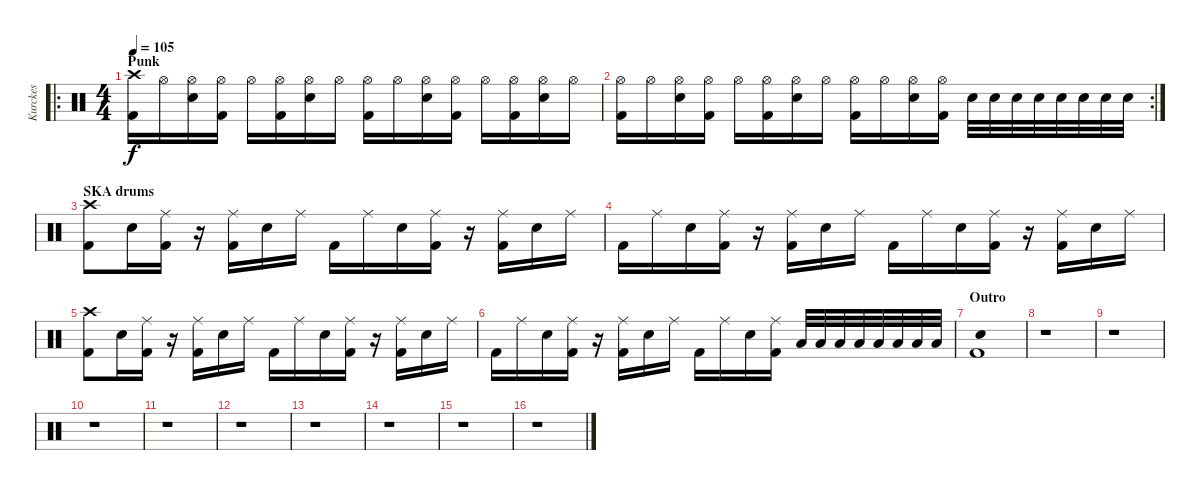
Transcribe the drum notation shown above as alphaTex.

\track ("Kurckes" "Kurckes") {instrument percussion}
\staff {score}
\articulation defaults
\ro
\ts (4 4)
\section ("" "Punk")
\tempo 105
\clef neutral
\ks c
("Crash high (hit)" "Kick (hit) 2").16{dy f} "Hi-Hat (open)".16 ("Hi-Hat (open)" "Snare (hit) 2").16 ("Hi-Hat (open)" "Kick (hit) 2").16 "Hi-Hat (open)".16 ("Hi-Hat (open)" "Kick (hit) 2").16 ("Hi-Hat (open)" "Snare (hit) 2").16 "Hi-Hat (open)".16 ("Hi-Hat (open)" "Kick (hit) 2").16 "Hi-Hat (open)".16 ("Hi-Hat (open)" "Snare (hit) 2").16 ("Hi-Hat (open)" "Kick (hit) 2").16 "Hi-Hat (open)".16 ("Hi-Hat (open)" "Kick (hit) 2").16 ("Hi-Hat (open)" "Snare (hit) 2").16 "Hi-Hat (open)".16 |
\rc 2
("Hi-Hat (open)" "Kick (hit) 2").16 "Hi-Hat (open)".16 ("Hi-Hat (open)" "Snare (hit) 2").16 ("Hi-Hat (open)" "Kick (hit) 2").16 "Hi-Hat (open)".16 ("Hi-Hat (open)" "Kick (hit) 2").16 ("Hi-Hat (open)" "Snare (hit) 2").16 "Hi-Hat (open)".16 ("Hi-Hat (open)" "Kick (hit) 2").16 "Hi-Hat (open)".16 ("Hi-Hat (open)" "Snare (hit) 2").16 ("Hi-Hat (open)" "Kick (hit) 2").16 "Snare (hit) 2".32 "Snare (hit) 2".32 "Snare (hit) 2".32 "Snare (hit) 2".32 "Snare (hit) 2".32 "Snare (hit) 2".32 "Snare (hit) 2".32 "Snare (hit) 2".32 |
\section ("" "SKA drums")
("Crash high (hit)" "Kick (hit) 2").8 "Snare (hit) 2".16 ("Ride (middle)" "Kick (hit) 2").16 r.16 ("Ride (middle)" "Kick (hit) 2").16 "Snare (hit) 2".16 "Ride (middle)".16 "Kick (hit) 2".16 "Ride (middle)".16 "Snare (hit) 2".16 ("Ride (middle)" "Kick (hit) 2").16 r.16 ("Ride (middle)" "Kick (hit) 2").16 "Snare (hit) 2".16 "Ride (middle)".16 |
"Kick (hit) 2".16 "Ride (middle)".16 "Snare (hit) 2".16 ("Ride (middle)" "Kick (hit) 2").16 r.16 ("Ride (middle)" "Kick (hit) 2").16 "Snare (hit) 2".16 "Ride (middle)".16 "Kick (hit) 2".16 "Ride (middle)".16 "Snare (hit) 2".16 ("Ride (middle)" "Kick (hit) 2").16 r.16 ("Ride (middle)" "Kick (hit) 2").16 "Snare (hit) 2".16 "Ride (middle)".16 |
("Crash high (hit)" "Kick (hit) 2").8 "Snare (hit) 2".16 ("Ride (middle)" "Kick (hit) 2").16 r.16 ("Ride (middle)" "Kick (hit) 2").16 "Snare (hit) 2".16 "Ride (middle)".16 "Kick (hit) 2".16 "Ride (middle)".16 "Snare (hit) 2".16 ("Ride (middle)" "Kick (hit) 2").16 r.16 ("Ride (middle)" "Kick (hit) 2").16 "Snare (hit) 2".16 "Ride (middle)".16 |
"Kick (hit) 2".16 "Ride (middle)".16 "Snare (hit) 2".16 ("Ride (middle)" "Kick (hit) 2").16 r.16 ("Ride (middle)" "Kick (hit) 2").16 "Snare (hit) 2".16 "Ride (middle)".16 "Kick (hit) 2".16 "Ride (middle)".16 "Snare (hit) 2".16 ("Ride (middle)" "Kick (hit) 2").16 "Low Floor Tom (hit)".32 "Low Floor Tom (hit)".32 "Low Floor Tom (hit)".32 "Low Floor Tom (hit)".32 "Low Floor Tom (hit)".32 "Low Floor Tom (hit)".32 "Low Floor Tom (hit)".32 "Low Floor Tom (hit)".32 |
\section ("" "Outro")
("Metronome (bell)" "Kick (hit) 2").1{volume 16} |
r.1{volume 13} |
r.1 |
r.1 |
r.1 |
r.1 |
r.1 |
r.1 |
r.1 |
r.1
